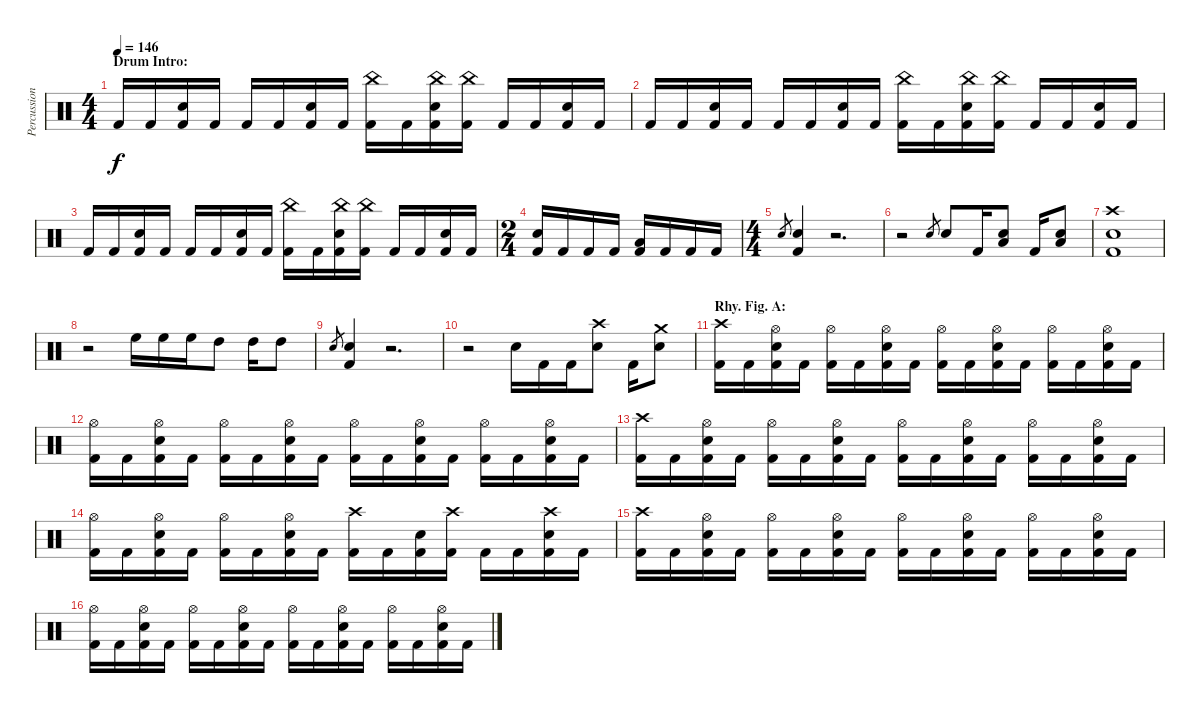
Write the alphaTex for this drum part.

\track ("Percussion" "Percussion") {instrument percussion}
\staff {score}
\articulation defaults
\ts (4 4)
\section ("" "Drum Intro:")
\tempo 146
\clef neutral
\ks c "Kick (hit) 2".16{dy f} "Kick (hit) 2".16
("Snare (hit) 2" "Kick (hit) 2").16 "Kick (hit) 2".16 "Kick (hit) 2".16 "Kick (hit) 2".16 ("Snare (hit) 2" "Kick (hit) 2").16 "Kick (hit) 2".16 ("China (hit)" "Kick (hit) 2").16 "Kick (hit) 2".16 ("China (hit)" "Snare (hit) 2" "Kick (hit) 2").16 ("China (hit)" "Kick (hit) 2").16 "Kick (hit) 2".16 "Kick (hit) 2".16 ("Snare (hit) 2" "Kick (hit) 2").16 "Kick (hit) 2".16 |
"Kick (hit) 2".16 "Kick (hit) 2".16 ("Snare (hit) 2" "Kick (hit) 2").16 "Kick (hit) 2".16 "Kick (hit) 2".16 "Kick (hit) 2".16 ("Snare (hit) 2" "Kick (hit) 2").16 "Kick (hit) 2".16 ("China (hit)" "Kick (hit) 2").16 "Kick (hit) 2".16 ("China (hit)" "Snare (hit) 2" "Kick (hit) 2").16 ("China (hit)" "Kick (hit) 2").16 "Kick (hit) 2".16 "Kick (hit) 2".16 ("Snare (hit) 2" "Kick (hit) 2").16 "Kick (hit) 2".16 |
"Kick (hit) 2".16 "Kick (hit) 2".16 ("Snare (hit) 2" "Kick (hit) 2").16 "Kick (hit) 2".16 "Kick (hit) 2".16 "Kick (hit) 2".16 ("Snare (hit) 2" "Kick (hit) 2").16 "Kick (hit) 2".16 ("China (hit)" "Kick (hit) 2").16 "Kick (hit) 2".16 ("China (hit)" "Snare (hit) 2" "Kick (hit) 2").16 ("China (hit)" "Kick (hit) 2").16 "Kick (hit) 2".16 "Kick (hit) 2".16 ("Snare (hit) 2" "Kick (hit) 2").16 "Kick (hit) 2".16 |
\ts (2 4)
("Snare (hit) 2" "Kick (hit) 2").16 "Kick (hit) 2".16 "Kick (hit) 2".16 "Kick (hit) 2".16 ("Low Tom (hit)" "Kick (hit) 2").16 "Kick (hit) 2".16 "Kick (hit) 2".16 "Kick (hit) 2".16 |
\ts (4 4)
"Snare (hit) 2".8{gr} ("Snare (hit) 2" "Kick (hit) 2").4 r.2{d} |
r.2 "Snare (hit) 2".8{gr} "Snare (hit) 2".8 "Kick (hit) 2".16 ("Low Tom (hit)" "Snare (hit) 2").8 "Kick (hit) 2".16 ("Low Tom (hit)" "Snare (hit) 2").8 |
("Crash high (hit)" "Snare (hit) 2" "Kick (hit) 2").1 |
r.2 "High Floor Tom (hit)".16 "High Floor Tom (hit)".16 "High Floor Tom (hit)".16 "High Tom (hit)".8 "High Tom (hit)".16 "High Tom (hit)".8 |
"Snare (hit) 2".8{gr} ("Snare (hit) 2" "Kick (hit) 2").4 r.2{d} |
r.2 "Snare (hit) 2".16 "Kick (hit) 2".16 "Kick (hit) 2".16 ("Crash high (hit)" "Snare (hit) 2").8 "Kick (hit) 2".16 ("Crash medium (hit)" "Snare (hit) 2").8 |
\section ("" "Rhy. Fig. A:")
("Crash high (hit)" "Kick (hit) 2").16 "Kick (hit) 2".16 ("Hi-Hat (open)" "Snare (hit) 2" "Kick (hit) 2").16 "Kick (hit) 2".16 ("Hi-Hat (open)" "Kick (hit) 2").16 "Kick (hit) 2".16 ("Hi-Hat (open)" "Snare (hit) 2" "Kick (hit) 2").16 "Kick (hit) 2".16 ("Hi-Hat (open)" "Kick (hit) 2").16 "Kick (hit) 2".16 ("Hi-Hat (open)" "Snare (hit) 2" "Kick (hit) 2").16 "Kick (hit) 2".16 ("Hi-Hat (open)" "Kick (hit) 2").16 "Kick (hit) 2".16 ("Hi-Hat (open)" "Snare (hit) 2" "Kick (hit) 2").16 "Kick (hit) 2".16 |
("Hi-Hat (open)" "Kick (hit) 2").16 "Kick (hit) 2".16 ("Hi-Hat (open)" "Snare (hit) 2" "Kick (hit) 2").16 "Kick (hit) 2".16 ("Hi-Hat (open)" "Kick (hit) 2").16 "Kick (hit) 2".16 ("Hi-Hat (open)" "Snare (hit) 2" "Kick (hit) 2").16 "Kick (hit) 2".16 ("Hi-Hat (open)" "Kick (hit) 2").16 "Kick (hit) 2".16 ("Hi-Hat (open)" "Snare (hit) 2" "Kick (hit) 2").16 "Kick (hit) 2".16 ("Hi-Hat (open)" "Kick (hit) 2").16 "Kick (hit) 2".16 ("Hi-Hat (open)" "Snare (hit) 2" "Kick (hit) 2").16 "Kick (hit) 2".16 |
("Crash high (hit)" "Kick (hit) 2").16 "Kick (hit) 2".16 ("Hi-Hat (open)" "Snare (hit) 2" "Kick (hit) 2").16 "Kick (hit) 2".16 ("Hi-Hat (open)" "Kick (hit) 2").16 "Kick (hit) 2".16 ("Hi-Hat (open)" "Snare (hit) 2" "Kick (hit) 2").16 "Kick (hit) 2".16 ("Hi-Hat (open)" "Kick (hit) 2").16 "Kick (hit) 2".16 ("Hi-Hat (open)" "Snare (hit) 2" "Kick (hit) 2").16 "Kick (hit) 2".16 ("Hi-Hat (open)" "Kick (hit) 2").16 "Kick (hit) 2".16 ("Hi-Hat (open)" "Snare (hit) 2" "Kick (hit) 2").16 "Kick (hit) 2".16 |
("Hi-Hat (open)" "Kick (hit) 2").16 "Kick (hit) 2".16 ("Hi-Hat (open)" "Snare (hit) 2" "Kick (hit) 2").16 "Kick (hit) 2".16 ("Hi-Hat (open)" "Kick (hit) 2").16 "Kick (hit) 2".16 ("Hi-Hat (open)" "Snare (hit) 2" "Kick (hit) 2").16 "Kick (hit) 2".16 ("Crash high (hit)" "Kick (hit) 2").16 "Kick (hit) 2".16 ("Snare (hit) 2" "Kick (hit) 2").16 ("Crash high (hit)" "Kick (hit) 2").16 "Kick (hit) 2".16 "Kick (hit) 2".16 ("Crash high (hit)" "Snare (hit) 2" "Kick (hit) 2").16 "Kick (hit) 2".16 |
("Crash high (hit)" "Kick (hit) 2").16 "Kick (hit) 2".16 ("Hi-Hat (open)" "Snare (hit) 2" "Kick (hit) 2").16 "Kick (hit) 2".16 ("Hi-Hat (open)" "Kick (hit) 2").16 "Kick (hit) 2".16 ("Hi-Hat (open)" "Snare (hit) 2" "Kick (hit) 2").16 "Kick (hit) 2".16 ("Hi-Hat (open)" "Kick (hit) 2").16 "Kick (hit) 2".16 ("Hi-Hat (open)" "Snare (hit) 2" "Kick (hit) 2").16 "Kick (hit) 2".16 ("Hi-Hat (open)" "Kick (hit) 2").16 "Kick (hit) 2".16 ("Hi-Hat (open)" "Snare (hit) 2" "Kick (hit) 2").16 "Kick (hit) 2".16 |
("Hi-Hat (open)" "Kick (hit) 2").16 "Kick (hit) 2".16 ("Hi-Hat (open)" "Snare (hit) 2" "Kick (hit) 2").16 "Kick (hit) 2".16 ("Hi-Hat (open)" "Kick (hit) 2").16 "Kick (hit) 2".16 ("Hi-Hat (open)" "Snare (hit) 2" "Kick (hit) 2").16 "Kick (hit) 2".16 ("Hi-Hat (open)" "Kick (hit) 2").16 "Kick (hit) 2".16 ("Hi-Hat (open)" "Snare (hit) 2" "Kick (hit) 2").16 "Kick (hit) 2".16 ("Hi-Hat (open)" "Kick (hit) 2").16 "Kick (hit) 2".16 ("Hi-Hat (open)" "Snare (hit) 2" "Kick (hit) 2").16 "Kick (hit) 2".16
